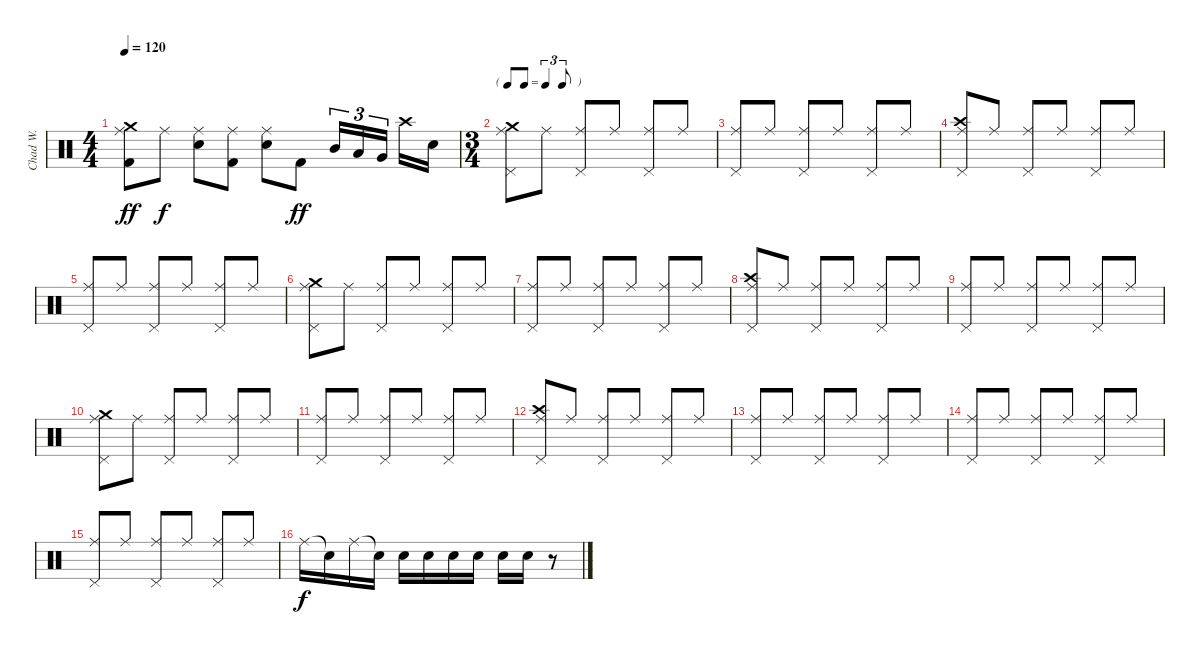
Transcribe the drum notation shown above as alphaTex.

\track ("Chad W." "Chad W.") {instrument percussion bank 177}
\staff {score}
\articulation defaults
\ts (4 4)
\tempo 120
\clef neutral
\ks c
("Crash medium (hit)" "Ride (middle)" "Kick (hit) 2").8{dy ff} "Ride (middle)".8{dy f} ("Ride (middle)" "Electric Snare (hit)").8 ("Ride (middle)" "Kick (hit) 2").8 ("Ride (middle)" "Electric Snare (hit)").8 "Kick (hit) 2".8{dy ff} "Mid Tom (hit)".16{tu (3 2)} "Low Tom (hit)".16{tu (3 2)} "Very Low Tom (hit)".16{tu (3 2) beam splitsecondary} "Crash high (hit)".16 "Electric Snare (hit)".16 |
\ts (3 4)
\tf triplet8th
("Crash medium (hit)" "Ride (middle)" "Pedal Hi-Hat (hit)").8 "Ride (middle)".8 ("Ride (middle)" "Pedal Hi-Hat (hit)").8 "Ride (middle)".8 ("Ride (middle)" "Pedal Hi-Hat (hit)").8 "Ride (middle)".8 |
("Ride (middle)" "Pedal Hi-Hat (hit)").8 "Ride (middle)".8 ("Ride (middle)" "Pedal Hi-Hat (hit)").8 "Ride (middle)".8 ("Ride (middle)" "Pedal Hi-Hat (hit)").8 "Ride (middle)".8 |
("Crash high (hit)" "Ride (middle)" "Pedal Hi-Hat (hit)").8 "Ride (middle)".8 ("Ride (middle)" "Pedal Hi-Hat (hit)").8 "Ride (middle)".8 ("Ride (middle)" "Pedal Hi-Hat (hit)").8 "Ride (middle)".8 |
("Ride (middle)" "Pedal Hi-Hat (hit)").8 "Ride (middle)".8 ("Ride (middle)" "Pedal Hi-Hat (hit)").8 "Ride (middle)".8 ("Ride (middle)" "Pedal Hi-Hat (hit)").8 "Ride (middle)".8 |
("Crash medium (hit)" "Ride (middle)" "Pedal Hi-Hat (hit)").8 "Ride (middle)".8 ("Ride (middle)" "Pedal Hi-Hat (hit)").8 "Ride (middle)".8 ("Ride (middle)" "Pedal Hi-Hat (hit)").8 "Ride (middle)".8 |
("Ride (middle)" "Pedal Hi-Hat (hit)").8 "Ride (middle)".8 ("Ride (middle)" "Pedal Hi-Hat (hit)").8 "Ride (middle)".8 ("Ride (middle)" "Pedal Hi-Hat (hit)").8 "Ride (middle)".8 |
("Crash high (hit)" "Ride (middle)" "Pedal Hi-Hat (hit)").8 "Ride (middle)".8 ("Ride (middle)" "Pedal Hi-Hat (hit)").8 "Ride (middle)".8 ("Ride (middle)" "Pedal Hi-Hat (hit)").8 "Ride (middle)".8 |
("Ride (middle)" "Pedal Hi-Hat (hit)").8 "Ride (middle)".8 ("Ride (middle)" "Pedal Hi-Hat (hit)").8 "Ride (middle)".8 ("Ride (middle)" "Pedal Hi-Hat (hit)").8 "Ride (middle)".8 |
("Crash medium (hit)" "Ride (middle)" "Pedal Hi-Hat (hit)").8 "Ride (middle)".8 ("Ride (middle)" "Pedal Hi-Hat (hit)").8 "Ride (middle)".8 ("Ride (middle)" "Pedal Hi-Hat (hit)").8 "Ride (middle)".8 |
("Ride (middle)" "Pedal Hi-Hat (hit)").8 "Ride (middle)".8 ("Ride (middle)" "Pedal Hi-Hat (hit)").8 "Ride (middle)".8 ("Ride (middle)" "Pedal Hi-Hat (hit)").8 "Ride (middle)".8 |
("Crash high (hit)" "Ride (middle)" "Pedal Hi-Hat (hit)").8 "Ride (middle)".8 ("Ride (middle)" "Pedal Hi-Hat (hit)").8 "Ride (middle)".8 ("Ride (middle)" "Pedal Hi-Hat (hit)").8 "Ride (middle)".8 |
("Ride (middle)" "Pedal Hi-Hat (hit)").8 "Ride (middle)".8 ("Ride (middle)" "Pedal Hi-Hat (hit)").8 "Ride (middle)".8 ("Ride (middle)" "Pedal Hi-Hat (hit)").8 "Ride (middle)".8 |
("Ride (middle)" "Pedal Hi-Hat (hit)").8 "Ride (middle)".8 ("Ride (middle)" "Pedal Hi-Hat (hit)").8 "Ride (middle)".8 ("Ride (middle)" "Pedal Hi-Hat (hit)").8 "Ride (middle)".8 |
("Ride (middle)" "Pedal Hi-Hat (hit)").8 "Ride (middle)".8 ("Ride (middle)" "Pedal Hi-Hat (hit)").8 "Ride (middle)".8 ("Ride (middle)" "Pedal Hi-Hat (hit)").8 "Ride (middle)".8 |
"Ride (middle)".16{dy f} "Snare (hit)"{t}.16 "Ride (middle)".16 "Snare (hit)"{t}.16 "Electric Snare (hit)".16 "Electric Snare (hit)".16 "Electric Snare (hit)".16 "Electric Snare (hit)".16 "Electric Snare (hit)".16 "Electric Snare (hit)".16 r.8
